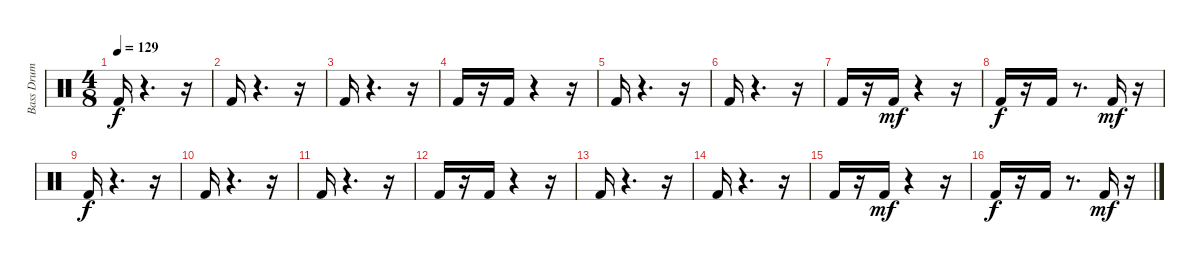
\track ("Bass Drum" "Bass Drum") {instrument percussion}
\staff {score}
\articulation defaults
\ts (4 8)
\tempo 129
\clef neutral
\ks c "Kick (hit) 2".16{dy f}
r.4{d} r.16 |
"Kick (hit) 2".16 r.4{d} r.16 |
"Kick (hit) 2".16 r.4{d} r.16 |
"Kick (hit) 2".16 r.16 "Kick (hit) 2".16 r.4 r.16 |
"Kick (hit) 2".16 r.4{d} r.16 |
"Kick (hit) 2".16 r.4{d} r.16 |
"Kick (hit) 2".16 r.16 "Kick (hit) 2".16{dy mf} r.4 r.16 |
"Kick (hit) 2".16{dy f} r.16 "Kick (hit) 2".16 r.8{d} "Kick (hit) 2".16{dy mf} r.16 |
"Kick (hit) 2".16{dy f} r.4{d} r.16 |
"Kick (hit) 2".16 r.4{d} r.16 |
"Kick (hit) 2".16 r.4{d} r.16 |
"Kick (hit) 2".16 r.16 "Kick (hit) 2".16 r.4 r.16 |
"Kick (hit) 2".16 r.4{d} r.16 |
"Kick (hit) 2".16 r.4{d} r.16 |
"Kick (hit) 2".16 r.16 "Kick (hit) 2".16{dy mf} r.4 r.16 |
"Kick (hit) 2".16{dy f} r.16 "Kick (hit) 2".16 r.8{d} "Kick (hit) 2".16{dy mf} r.16
